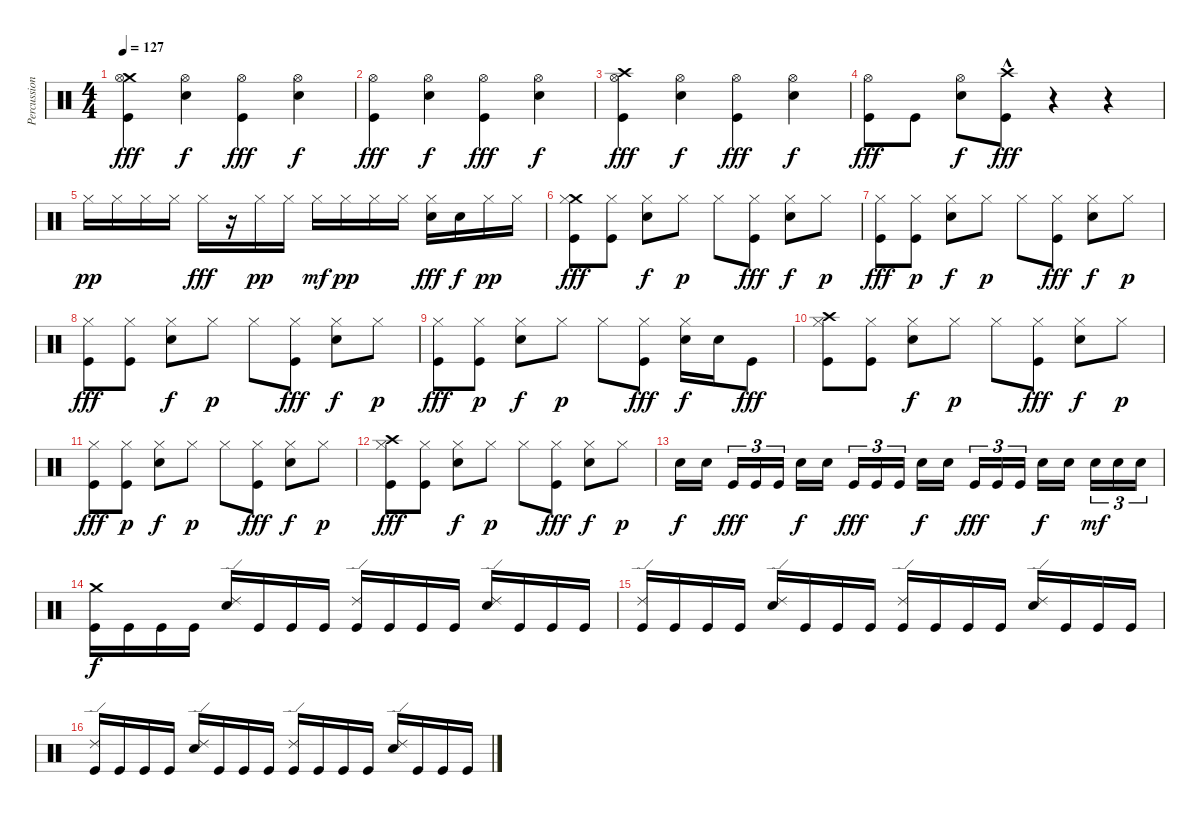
\track ("Percussion" "Percussion") {instrument percussion}
\staff {score}
\articulation defaults
\ts (4 4)
\tempo 127
\clef neutral
\ks c
("Crash medium (hit)" "Hi-Hat (open)" "Kick (hit)").4{dy fff} ("Electric Snare (hit)" "Hi-Hat (open)").4{dy f} ("Hi-Hat (open)" "Kick (hit)").4{dy fff} ("Electric Snare (hit)" "Hi-Hat (open)").4{dy f} |
("Hi-Hat (open)" "Kick (hit)").4{dy fff} ("Electric Snare (hit)" "Hi-Hat (open)").4{dy f} ("Hi-Hat (open)" "Kick (hit)").4{dy fff} ("Electric Snare (hit)" "Hi-Hat (open)").4{dy f} |
("Crash high (hit)" "Hi-Hat (open)" "Kick (hit)").4{dy fff} ("Electric Snare (hit)" "Hi-Hat (open)").4{dy f} ("Hi-Hat (open)" "Kick (hit)").4{dy fff} ("Electric Snare (hit)" "Hi-Hat (open)").4{dy f} |
("Hi-Hat (open)" "Kick (hit)").8{dy fff} "Kick (hit)".8 ("Electric Snare (hit)" "Hi-Hat (open)").8{dy f} ("Crash high (hit)" "Kick (hit)"{hac}).8{dy fff} r.4 r.4 |
"Hi-Hat (closed)".16{dy pp} "Hi-Hat (closed)".16 "Hi-Hat (closed)".16 "Hi-Hat (closed)".16 "Hi-Hat (closed)".16{dy fff} r.16 "Hi-Hat (closed)".16{dy pp} "Hi-Hat (closed)".16 "Hi-Hat (closed)".16{dy mf} "Hi-Hat (closed)".16{dy pp} "Hi-Hat (closed)".16 "Hi-Hat (closed)".16 ("Electric Snare (hit)" "Hi-Hat (closed)").16{dy fff} "Electric Snare (hit)".16{dy f} "Hi-Hat (closed)".16{dy pp} "Hi-Hat (closed)".16 |
("Crash medium (hit)" "Hi-Hat (closed)" "Kick (hit)").8{dy fff} ("Hi-Hat (closed)" "Kick (hit)").8 ("Hi-Hat (closed)" "Electric Snare (hit)").8{dy f} "Hi-Hat (closed)".8{dy p} "Hi-Hat (closed)".8 ("Hi-Hat (closed)" "Kick (hit)").8{dy fff} ("Hi-Hat (closed)" "Electric Snare (hit)").8{dy f} "Hi-Hat (closed)".8{dy p} |
("Hi-Hat (closed)" "Kick (hit)").8{dy fff} ("Hi-Hat (closed)" "Kick (hit)").8{dy p} ("Hi-Hat (closed)" "Electric Snare (hit)").8{dy f} "Hi-Hat (closed)".8{dy p} "Hi-Hat (closed)".8 ("Hi-Hat (closed)" "Kick (hit)").8{dy fff} ("Hi-Hat (closed)" "Electric Snare (hit)").8{dy f} "Hi-Hat (closed)".8{dy p} |
("Hi-Hat (closed)" "Kick (hit)").8{dy fff} ("Hi-Hat (closed)" "Kick (hit)").8 ("Hi-Hat (closed)" "Electric Snare (hit)").8{dy f} "Hi-Hat (closed)".8{dy p} "Hi-Hat (closed)".8 ("Hi-Hat (closed)" "Kick (hit)").8{dy fff} ("Hi-Hat (closed)" "Electric Snare (hit)").8{dy f} "Hi-Hat (closed)".8{dy p} |
("Hi-Hat (closed)" "Kick (hit)").8{dy fff} ("Hi-Hat (closed)" "Kick (hit)").8{dy p} ("Hi-Hat (closed)" "Electric Snare (hit)").8{dy f} "Hi-Hat (closed)".8{dy p} "Hi-Hat (closed)".8 ("Hi-Hat (closed)" "Kick (hit)").8{dy fff} ("Hi-Hat (closed)" "Electric Snare (hit)").16{dy f} "Electric Snare (hit)".16 "Kick (hit)".8{dy fff} |
("Crash high (hit)" "Hi-Hat (closed)" "Kick (hit)").8 ("Hi-Hat (closed)" "Kick (hit)").8 ("Hi-Hat (closed)" "Electric Snare (hit)").8{dy f} "Hi-Hat (closed)".8{dy p} "Hi-Hat (closed)".8 ("Hi-Hat (closed)" "Kick (hit)").8{dy fff} ("Hi-Hat (closed)" "Electric Snare (hit)").8{dy f} "Hi-Hat (closed)".8{dy p} |
("Hi-Hat (closed)" "Kick (hit)").8{dy fff} ("Hi-Hat (closed)" "Kick (hit)").8{dy p} ("Hi-Hat (closed)" "Electric Snare (hit)").8{dy f} "Hi-Hat (closed)".8{dy p} "Hi-Hat (closed)".8 ("Hi-Hat (closed)" "Kick (hit)").8{dy fff} ("Hi-Hat (closed)" "Electric Snare (hit)").8{dy f} "Hi-Hat (closed)".8{dy p} |
("Crash high (hit)" "Hi-Hat (closed)" "Kick (hit)").8{dy fff} ("Hi-Hat (closed)" "Kick (hit)").8 ("Hi-Hat (closed)" "Electric Snare (hit)").8{dy f} "Hi-Hat (closed)".8{dy p} "Hi-Hat (closed)".8 ("Hi-Hat (closed)" "Kick (hit)").8{dy fff} ("Hi-Hat (closed)" "Electric Snare (hit)").8{dy f} "Hi-Hat (closed)".8{dy p} |
"Electric Snare (hit)".16{dy f} "Electric Snare (hit)".16 "Kick (hit)".16{tu (3 2) dy fff} "Kick (hit)".16{tu (3 2)} "Kick (hit)".16{tu (3 2)} "Electric Snare (hit)".16{dy f} "Electric Snare (hit)".16 "Kick (hit)".16{tu (3 2) dy fff} "Kick (hit)".16{tu (3 2)} "Kick (hit)".16{tu (3 2)} "Electric Snare (hit)".16{dy f} "Electric Snare (hit)".16 "Kick (hit)".16{tu (3 2) dy fff} "Kick (hit)".16{tu (3 2)} "Kick (hit)".16{tu (3 2)} "Electric Snare (hit)".16{dy f} "Electric Snare (hit)".16 "Electric Snare (hit)".16{tu (3 2) dy mf} "Electric Snare (hit)".16{tu (3 2)} "Electric Snare (hit)".16{tu (3 2)} |
("Crash medium (hit)" "Kick (hit)").16{dy f} "Kick (hit)".16 "Kick (hit)".16 "Kick (hit)".16 ("Ride (edge) 2" "Electric Snare (hit)").16 "Kick (hit)".16 "Kick (hit)".16 "Kick (hit)".16 ("Ride (edge) 2" "Kick (hit)").16 "Kick (hit)".16 "Kick (hit)".16 "Kick (hit)".16 ("Ride (edge) 2" "Electric Snare (hit)").16 "Kick (hit)".16 "Kick (hit)".16 "Kick (hit)".16 |
("Ride (edge) 2" "Kick (hit)").16 "Kick (hit)".16 "Kick (hit)".16 "Kick (hit)".16 ("Ride (edge) 2" "Electric Snare (hit)").16 "Kick (hit)".16 "Kick (hit)".16 "Kick (hit)".16 ("Ride (edge) 2" "Kick (hit)").16 "Kick (hit)".16 "Kick (hit)".16 "Kick (hit)".16 ("Ride (edge) 2" "Electric Snare (hit)").16 "Kick (hit)".16 "Kick (hit)".16 "Kick (hit)".16 |
("Ride (edge) 2" "Kick (hit)").16 "Kick (hit)".16 "Kick (hit)".16 "Kick (hit)".16 ("Ride (edge) 2" "Electric Snare (hit)").16 "Kick (hit)".16 "Kick (hit)".16 "Kick (hit)".16 ("Ride (edge) 2" "Kick (hit)").16 "Kick (hit)".16 "Kick (hit)".16 "Kick (hit)".16 ("Ride (edge) 2" "Electric Snare (hit)").16 "Kick (hit)".16 "Kick (hit)".16 "Kick (hit)".16
